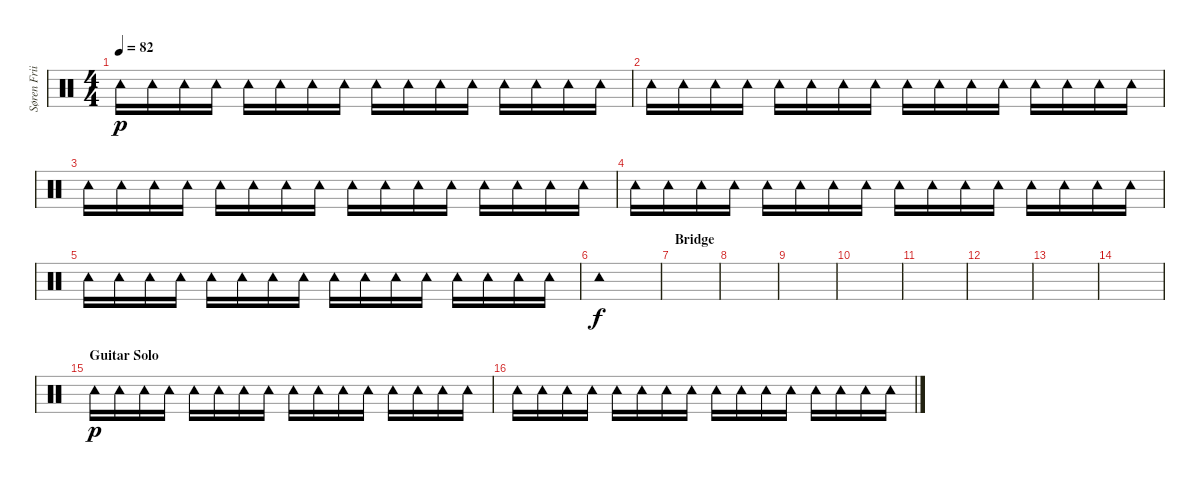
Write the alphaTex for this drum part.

\track ("Søren Friis 2" "Søren Frii") {instrument percussion}
\staff {score}
\articulation defaults
\ts (4 4)
\tempo 82
\clef neutral
\ks c "Tambourine (hit)".16{dy p} "Tambourine (hit)".16 "Tambourine (hit)".16 "Tambourine (hit)".16 "Tambourine (hit)".16 "Tambourine (hit)".16 "Tambourine (hit)".16 "Tambourine (hit)".16 "Tambourine (hit)".16 "Tambourine (hit)".16 "Tambourine (hit)".16 "Tambourine (hit)".16 "Tambourine (hit)".16 "Tambourine (hit)".16 "Tambourine (hit)".16 "Tambourine (hit)".16
|
"Tambourine (hit)".16 "Tambourine (hit)".16 "Tambourine (hit)".16 "Tambourine (hit)".16 "Tambourine (hit)".16 "Tambourine (hit)".16 "Tambourine (hit)".16 "Tambourine (hit)".16 "Tambourine (hit)".16 "Tambourine (hit)".16 "Tambourine (hit)".16 "Tambourine (hit)".16 "Tambourine (hit)".16 "Tambourine (hit)".16 "Tambourine (hit)".16 "Tambourine (hit)".16 |
"Tambourine (hit)".16 "Tambourine (hit)".16 "Tambourine (hit)".16 "Tambourine (hit)".16 "Tambourine (hit)".16 "Tambourine (hit)".16 "Tambourine (hit)".16 "Tambourine (hit)".16 "Tambourine (hit)".16 "Tambourine (hit)".16 "Tambourine (hit)".16 "Tambourine (hit)".16 "Tambourine (hit)".16 "Tambourine (hit)".16 "Tambourine (hit)".16 "Tambourine (hit)".16 |
"Tambourine (hit)".16 "Tambourine (hit)".16 "Tambourine (hit)".16 "Tambourine (hit)".16 "Tambourine (hit)".16 "Tambourine (hit)".16 "Tambourine (hit)".16 "Tambourine (hit)".16 "Tambourine (hit)".16 "Tambourine (hit)".16 "Tambourine (hit)".16 "Tambourine (hit)".16 "Tambourine (hit)".16 "Tambourine (hit)".16 "Tambourine (hit)".16 "Tambourine (hit)".16 |
"Tambourine (hit)".16 "Tambourine (hit)".16 "Tambourine (hit)".16 "Tambourine (hit)".16 "Tambourine (hit)".16 "Tambourine (hit)".16 "Tambourine (hit)".16 "Tambourine (hit)".16 "Tambourine (hit)".16 "Tambourine (hit)".16 "Tambourine (hit)".16 "Tambourine (hit)".16 "Tambourine (hit)".16 "Tambourine (hit)".16 "Tambourine (hit)".16 "Tambourine (hit)".16 |
"Tambourine (hit)".1{dy f} |
\section ("" "Bridge")
|
|
|
|
|
|
|
|
\section ("" "Guitar Solo")
"Tambourine (hit)".16{dy p} "Tambourine (hit)".16 "Tambourine (hit)".16 "Tambourine (hit)".16 "Tambourine (hit)".16 "Tambourine (hit)".16 "Tambourine (hit)".16 "Tambourine (hit)".16 "Tambourine (hit)".16 "Tambourine (hit)".16 "Tambourine (hit)".16 "Tambourine (hit)".16 "Tambourine (hit)".16 "Tambourine (hit)".16 "Tambourine (hit)".16 "Tambourine (hit)".16 |
"Tambourine (hit)".16 "Tambourine (hit)".16 "Tambourine (hit)".16 "Tambourine (hit)".16 "Tambourine (hit)".16 "Tambourine (hit)".16 "Tambourine (hit)".16 "Tambourine (hit)".16 "Tambourine (hit)".16 "Tambourine (hit)".16 "Tambourine (hit)".16 "Tambourine (hit)".16 "Tambourine (hit)".16 "Tambourine (hit)".16 "Tambourine (hit)".16 "Tambourine (hit)".16
